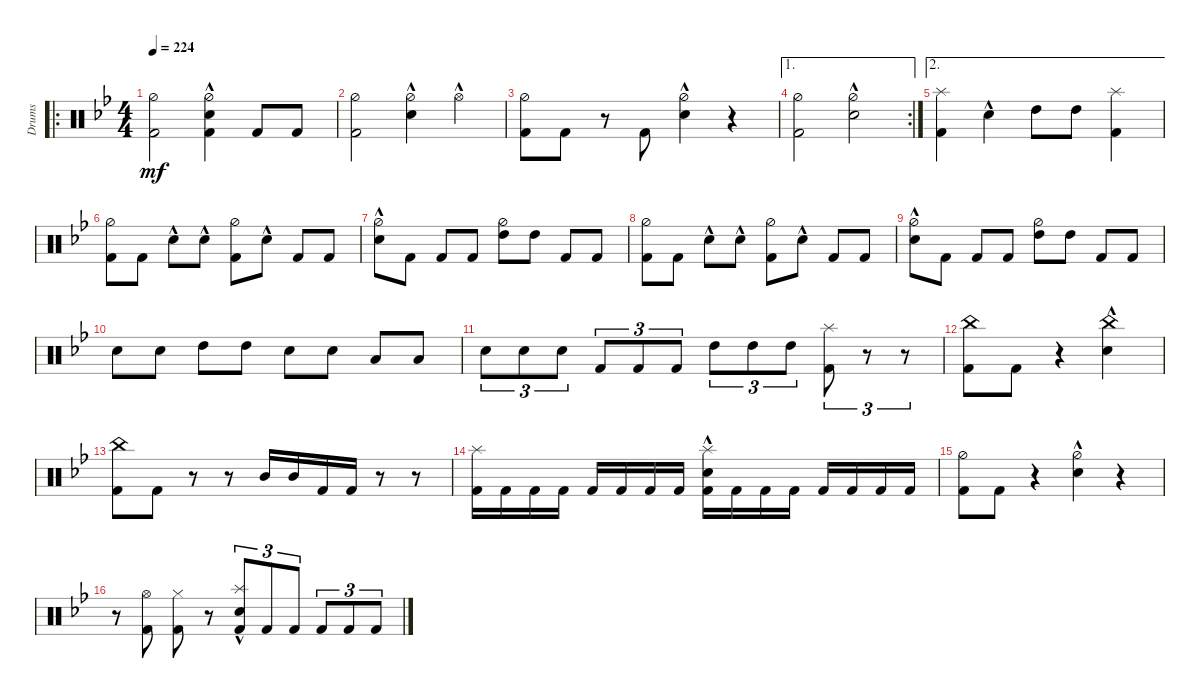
\defaultSystemsLayout 4
\bracketExtendMode groupsimilarinstruments
\otherSystemsTrackNameOrientation horizontal
\track ("Drumkit" "Drums") {instrument percussion}
\staff {score}
\articulation defaults
\ro
\ts (4 4)
\tempo 224
\clef neutral
\ks bb
("Hi-Hat (half)"{acc forcenatural} "Kick (hit) 2"{acc forcenatural}).2{dy mf beam Down} ("Snare (hit) 2"{hac acc forcenatural} "Hi-Hat (half)"{acc forcenatural} "Kick (hit) 2"{acc forcenatural}).4{beam Down} "Kick (hit) 2"{acc forcenatural}.8{beam Up} "Kick (hit) 2"{acc forcenatural}.8{beam Up} |
("Kick (hit) 2"{acc forcenatural} "Hi-Hat (half)"{acc forcenatural}).2{beam Down} ("Snare (hit) 2"{hac acc forcenatural} "Hi-Hat (half)"{acc forcenatural}).4{beam Down} "Hi-Hat (open)"{hac acc forcenatural}.4{beam Down} |
("Kick (hit) 2"{acc forcenatural} "Hi-Hat (half)"{acc forcenatural}).8{beam Down} "Kick (hit) 2"{acc forcenatural}.8{beam Down} r.8{beam Down} "Kick (hit) 2"{acc forcenatural}.8{beam Up} ("Snare (hit) 2"{hac acc forcenatural} "Hi-Hat (half)"{acc forcenatural}).4{beam Down} r.4{beam Down} |
\ae 1
\rc 2
("Kick (hit) 2"{acc forcenatural} "Hi-Hat (half)"{acc forcenatural}).2{beam Down} ("Hi-Hat (half)"{acc forcenatural} "Snare (hit) 2"{hac acc forcenatural}).2{beam Down} |
\ae 2
("Kick (hit) 2"{acc forcenatural} "Splash (hit)"{acc forcenatural}).4{beam Down} "Snare (hit) 2"{hac acc forcenatural}.4{beam Down} "High Tom (hit)"{acc forcenatural}.8{beam Down} "High Tom (hit)"{acc forcenatural}.8{beam Down} ("Kick (hit) 2"{acc forcenatural} "Splash (hit)"{acc forcenatural}).4{beam Down} |
("Hi-Hat (half)"{acc forcenatural} "Kick (hit) 2"{acc forcenatural}).8{beam Down} "Kick (hit) 2"{acc forcenatural}.8{beam Down} "Snare (hit) 2"{hac acc forcenatural}.8{beam Down} "Snare (hit) 2"{hac acc forcenatural}.8{beam Down} ("Kick (hit) 2"{acc forcenatural} "Hi-Hat (half)"{acc forcenatural}).8{beam Down} "Snare (hit) 2"{hac acc forcenatural}.8{beam Down} "Kick (hit) 2"{acc forcenatural}.8{beam Up} "Kick (hit) 2"{acc forcenatural}.8{beam Up} |
("Snare (hit) 2"{hac acc forcenatural} "Hi-Hat (half)"{acc forcenatural}).8{beam Down} "Kick (hit) 2"{acc forcenatural}.8{beam Down} "Kick (hit) 2"{acc forcenatural}.8{beam Up} "Kick (hit) 2"{acc forcenatural}.8{beam Up} ("Hi-Hat (half)"{acc forcenatural} "High Tom (hit)"{acc forcenatural}).8{beam Down} "High Tom (hit)"{acc forcenatural}.8{beam Down} "Kick (hit) 2"{acc forcenatural}.8{beam Up} "Kick (hit) 2"{acc forcenatural}.8{beam Up} |
("Hi-Hat (half)"{acc forcenatural} "Kick (hit) 2"{acc forcenatural}).8{beam Down} "Kick (hit) 2"{acc forcenatural}.8{beam Down} "Snare (hit) 2"{hac acc forcenatural}.8{beam Down} "Snare (hit) 2"{hac acc forcenatural}.8{beam Down} ("Kick (hit) 2"{acc forcenatural} "Hi-Hat (half)"{acc forcenatural}).8{beam Down} "Snare (hit) 2"{hac acc forcenatural}.8{beam Down} "Kick (hit) 2"{acc forcenatural}.8{beam Up} "Kick (hit) 2"{acc forcenatural}.8{beam Up} |
("Snare (hit) 2"{hac acc forcenatural} "Hi-Hat (half)"{acc forcenatural}).8{beam Down} "Kick (hit) 2"{acc forcenatural}.8{beam Down} "Kick (hit) 2"{acc forcenatural}.8{beam Up} "Kick (hit) 2"{acc forcenatural}.8{beam Up} ("Hi-Hat (half)"{acc forcenatural} "High Tom (hit)"{acc forcenatural}).8{beam Down} "High Tom (hit)"{acc forcenatural}.8{beam Down} "Kick (hit) 2"{acc forcenatural}.8{beam Up} "Kick (hit) 2"{acc forcenatural}.8{beam Up} |
"Snare (hit) 2"{acc forcenatural}.8{beam Down} "Snare (hit) 2"{acc forcenatural}.8{beam Down} "High Tom (hit)"{acc forcenatural}.8{beam Down} "High Tom (hit)"{acc forcenatural}.8{beam Down} "Snare (hit) 2"{acc forcenatural}.8{beam Down} "Snare (hit) 2"{acc forcenatural}.8{beam Down} "Low Tom (hit)"{acc forcenatural}.8{beam Up} "Low Tom (hit)"{acc forcenatural}.8{beam Up} |
"Snare (hit) 2"{acc forcenatural}.8{tu (3 2) beam Down} "Snare (hit) 2"{acc forcenatural}.8{tu (3 2) beam Down} "Snare (hit) 2"{acc forcenatural}.8{tu (3 2) beam Down} "Kick (hit) 2"{acc forcenatural}.8{tu (3 2) beam Up} "Kick (hit) 2"{acc forcenatural}.8{tu (3 2) beam Up} "Kick (hit) 2"{acc forcenatural}.8{tu (3 2) beam Up} "High Tom (hit)"{acc forcenatural}.8{tu (3 2) beam Down} "High Tom (hit)"{acc forcenatural}.8{tu (3 2) beam Down} "High Tom (hit)"{acc forcenatural}.8{tu (3 2) beam Down} ("Kick (hit) 2"{acc forcenatural} "Splash (hit)"{acc forcenatural}).8{tu (3 2) beam Down} r.8{tu (3 2) beam Down} r.8{tu (3 2) beam Down} |
("Kick (hit) 2"{acc forcenatural} "China (hit)"{acc forcenatural}).8{beam Down} "Kick (hit) 2"{acc forcenatural}.8{beam Down} r.4{beam Down} ("Snare (hit) 2"{hac acc forcenatural} "China (hit)"{acc forcenatural}).4{beam Down} |
("Kick (hit) 2"{acc forcenatural} "China (hit)"{acc forcenatural}).8{beam Down} "Kick (hit) 2"{acc forcenatural}.8{beam Down} r.8{beam Down} r.8{beam Down} "Mid Tom (hit)"{acc forcenatural}.16{beam Up} "Mid Tom (hit)"{acc forcenatural}.16{beam Up} "Kick (hit) 2"{acc forcenatural}.16{beam Up} "Kick (hit) 2"{acc forcenatural}.16{beam Up} r.8{beam Up} r.8{beam Up} |
("Kick (hit) 2"{acc forcenatural} "Splash (hit)"{acc forcenatural}).16{beam Down} "Kick (hit) 2"{acc forcenatural}.16{beam Down} "Kick (hit) 2"{acc forcenatural}.16{beam Down} "Kick (hit) 2"{acc forcenatural}.16{beam Down} "Kick (hit) 2"{acc forcenatural}.16{beam Up} "Kick (hit) 2"{acc forcenatural}.16{beam Up} "Kick (hit) 2"{acc forcenatural}.16{beam Up} "Kick (hit) 2"{acc forcenatural}.16{beam Up} ("Kick (hit) 2"{acc forcenatural} "Splash (hit)"{acc forcenatural} "Snare (hit) 2"{hac acc forcenatural}).16{beam Down} "Kick (hit) 2"{acc forcenatural}.16{beam Down} "Kick (hit) 2"{acc forcenatural}.16{beam Down} "Kick (hit) 2"{acc forcenatural}.16{beam Down} "Kick (hit) 2"{acc forcenatural}.16{beam Up} "Kick (hit) 2"{acc forcenatural}.16{beam Up} "Kick (hit) 2"{acc forcenatural}.16{beam Up} "Kick (hit) 2"{acc forcenatural}.16{beam Up} |
("Kick (hit) 2"{acc forcenatural} "Hi-Hat (half)"{acc forcenatural}).8{beam Down} "Kick (hit) 2"{acc forcenatural}.8{beam Down} r.4{beam Down} ("Snare (hit) 2"{hac acc forcenatural} "Hi-Hat (half)"{acc forcenatural}).4{beam Down} r.4{beam Down} |
r.8{beam Down} ("Kick (hit) 2"{acc forcenatural} "Hi-Hat (open)"{acc forcenatural}).8{beam Down} ("Kick (hit) 2"{acc forcenatural} "Hi-Hat (closed)"{acc forcenatural}).8{beam Down} r.8{beam Down} ("Kick (hit) 2"{acc forcenatural} "Splash (hit)"{acc forcenatural} "Snare (hit) 2"{hac acc forcenatural}).8{tu (3 2) beam Up} "Kick (hit) 2"{acc forcenatural}.8{tu (3 2) beam Up} "Kick (hit) 2"{acc forcenatural}.8{tu (3 2) beam Up} "Kick (hit) 2"{acc forcenatural}.8{tu (3 2) beam Up} "Kick (hit) 2"{acc forcenatural}.8{tu (3 2) beam Up} "Kick (hit) 2"{acc forcenatural}.8{tu (3 2) beam Up}
